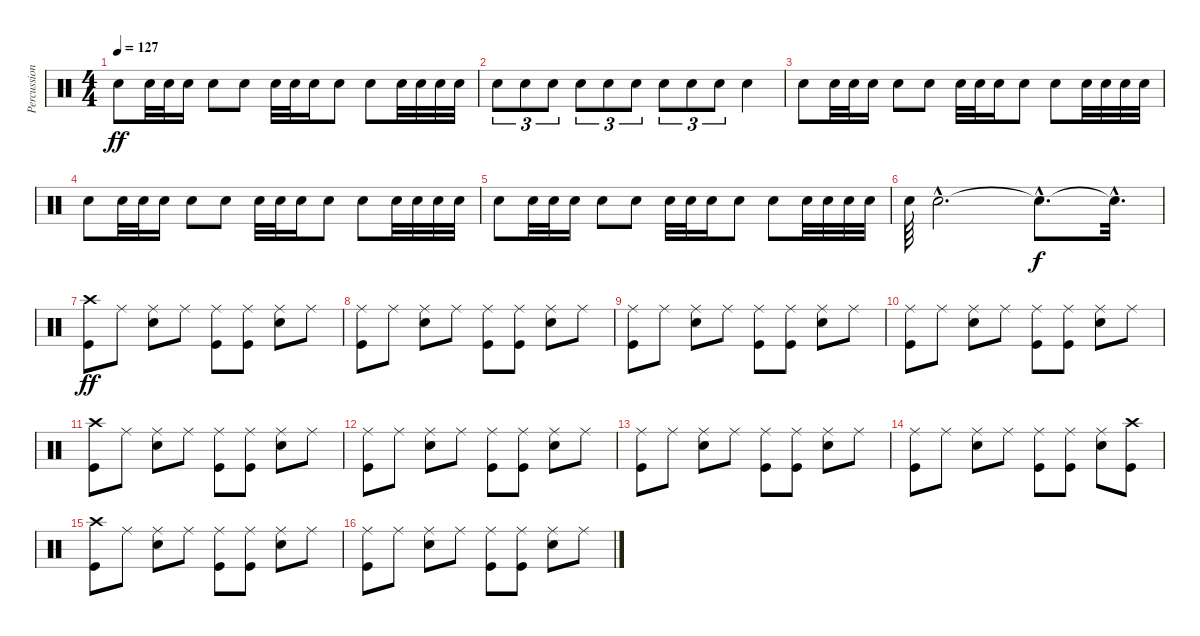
\track ("Percussion" "Percussion") {instrument percussion}
\staff {score}
\articulation defaults
\ts (4 4)
\tempo 127
\clef neutral
\ks c "Snare (hit) 2".8{dy ff} "Snare (hit) 2".32 "Snare (hit) 2".32 "Snare (hit) 2".16 "Snare (hit) 2".8 "Snare (hit) 2".8 "Snare (hit) 2".32 "Snare (hit) 2".32 "Snare (hit) 2".16 "Snare (hit) 2".8 "Snare (hit) 2".8 "Snare (hit) 2".32 "Snare (hit) 2".32 "Snare (hit) 2".32 "Snare (hit) 2".32
|
"Snare (hit) 2".8{tu (3 2)} "Snare (hit) 2".8{tu (3 2)} "Snare (hit) 2".8{tu (3 2)} "Snare (hit) 2".8{tu (3 2)} "Snare (hit) 2".8{tu (3 2)} "Snare (hit) 2".8{tu (3 2)} "Snare (hit) 2".8{tu (3 2)} "Snare (hit) 2".8{tu (3 2)} "Snare (hit) 2".8{tu (3 2)} "Snare (hit) 2".4 |
"Snare (hit) 2".8 "Snare (hit) 2".32 "Snare (hit) 2".32 "Snare (hit) 2".16 "Snare (hit) 2".8 "Snare (hit) 2".8 "Snare (hit) 2".32 "Snare (hit) 2".32 "Snare (hit) 2".16 "Snare (hit) 2".8 "Snare (hit) 2".8 "Snare (hit) 2".32 "Snare (hit) 2".32 "Snare (hit) 2".32 "Snare (hit) 2".32 |
"Snare (hit) 2".8 "Snare (hit) 2".32 "Snare (hit) 2".32 "Snare (hit) 2".16 "Snare (hit) 2".8 "Snare (hit) 2".8 "Snare (hit) 2".32 "Snare (hit) 2".32 "Snare (hit) 2".16 "Snare (hit) 2".8 "Snare (hit) 2".8 "Snare (hit) 2".32 "Snare (hit) 2".32 "Snare (hit) 2".32 "Snare (hit) 2".32 |
"Snare (hit) 2".8 "Snare (hit) 2".32 "Snare (hit) 2".32 "Snare (hit) 2".16 "Snare (hit) 2".8 "Snare (hit) 2".8 "Snare (hit) 2".32 "Snare (hit) 2".32 "Snare (hit) 2".16 "Snare (hit) 2".8 "Snare (hit) 2".8 "Snare (hit) 2".32 "Snare (hit) 2".32 "Snare (hit) 2".32 "Snare (hit) 2".32 |
"Snare (hit) 2".64 "Snare (hit) 2"{hac}.2{d} "Snare (hit)"{hac t}.8{d dy f} "Snare (hit)"{hac t}.32{d} |
("Crash high (hit)" "Kick (hit)").8{dy ff} "Ride (middle)".8 ("Ride (middle)" "Snare (hit) 2").8 "Ride (middle)".8 ("Ride (middle)" "Kick (hit)").8 ("Ride (middle)" "Kick (hit)").8 ("Ride (middle)" "Snare (hit) 2").8 "Ride (middle)".8 |
("Ride (middle)" "Kick (hit)").8 "Ride (middle)".8 ("Ride (middle)" "Snare (hit) 2").8 "Ride (middle)".8 ("Ride (middle)" "Kick (hit)").8 ("Ride (middle)" "Kick (hit)").8 ("Ride (middle)" "Snare (hit) 2").8 "Ride (middle)".8 |
("Ride (middle)" "Kick (hit)").8 "Ride (middle)".8 ("Ride (middle)" "Snare (hit) 2").8 "Ride (middle)".8 ("Ride (middle)" "Kick (hit)").8 ("Ride (middle)" "Kick (hit)").8 ("Ride (middle)" "Snare (hit) 2").8 "Ride (middle)".8 |
("Ride (middle)" "Kick (hit)").8 "Ride (middle)".8 ("Ride (middle)" "Snare (hit) 2").8 "Ride (middle)".8 ("Ride (middle)" "Kick (hit)").8 ("Ride (middle)" "Kick (hit)").8 ("Ride (middle)" "Snare (hit) 2").8 "Ride (middle)".8 |
("Crash high (hit)" "Kick (hit)").8 "Ride (middle)".8 ("Ride (middle)" "Snare (hit) 2").8 "Ride (middle)".8 ("Ride (middle)" "Kick (hit)").8 ("Ride (middle)" "Kick (hit)").8 ("Ride (middle)" "Snare (hit) 2").8 "Ride (middle)".8 |
("Ride (middle)" "Kick (hit)").8 "Ride (middle)".8 ("Ride (middle)" "Snare (hit) 2").8 "Ride (middle)".8 ("Ride (middle)" "Kick (hit)").8 ("Ride (middle)" "Kick (hit)").8 ("Ride (middle)" "Snare (hit) 2").8 "Ride (middle)".8 |
("Ride (middle)" "Kick (hit)").8 "Ride (middle)".8 ("Ride (middle)" "Snare (hit) 2").8 "Ride (middle)".8 ("Ride (middle)" "Kick (hit)").8 ("Ride (middle)" "Kick (hit)").8 ("Ride (middle)" "Snare (hit) 2").8 "Ride (middle)".8 |
("Ride (middle)" "Kick (hit)").8 "Ride (middle)".8 ("Ride (middle)" "Snare (hit) 2").8 "Ride (middle)".8 ("Ride (middle)" "Kick (hit)").8 ("Ride (middle)" "Kick (hit)").8 ("Ride (middle)" "Snare (hit) 2").8 ("Crash high (hit)" "Kick (hit)").8 |
("Crash high (hit)" "Kick (hit)").8 "Ride (middle)".8 ("Ride (middle)" "Snare (hit) 2").8 "Ride (middle)".8 ("Ride (middle)" "Kick (hit)").8 ("Ride (middle)" "Kick (hit)").8 ("Ride (middle)" "Snare (hit) 2").8 "Ride (middle)".8 |
("Ride (middle)" "Kick (hit)").8 "Ride (middle)".8 ("Ride (middle)" "Snare (hit) 2").8 "Ride (middle)".8 ("Ride (middle)" "Kick (hit)").8 ("Ride (middle)" "Kick (hit)").8 ("Ride (middle)" "Snare (hit) 2").8 "Ride (middle)".8
